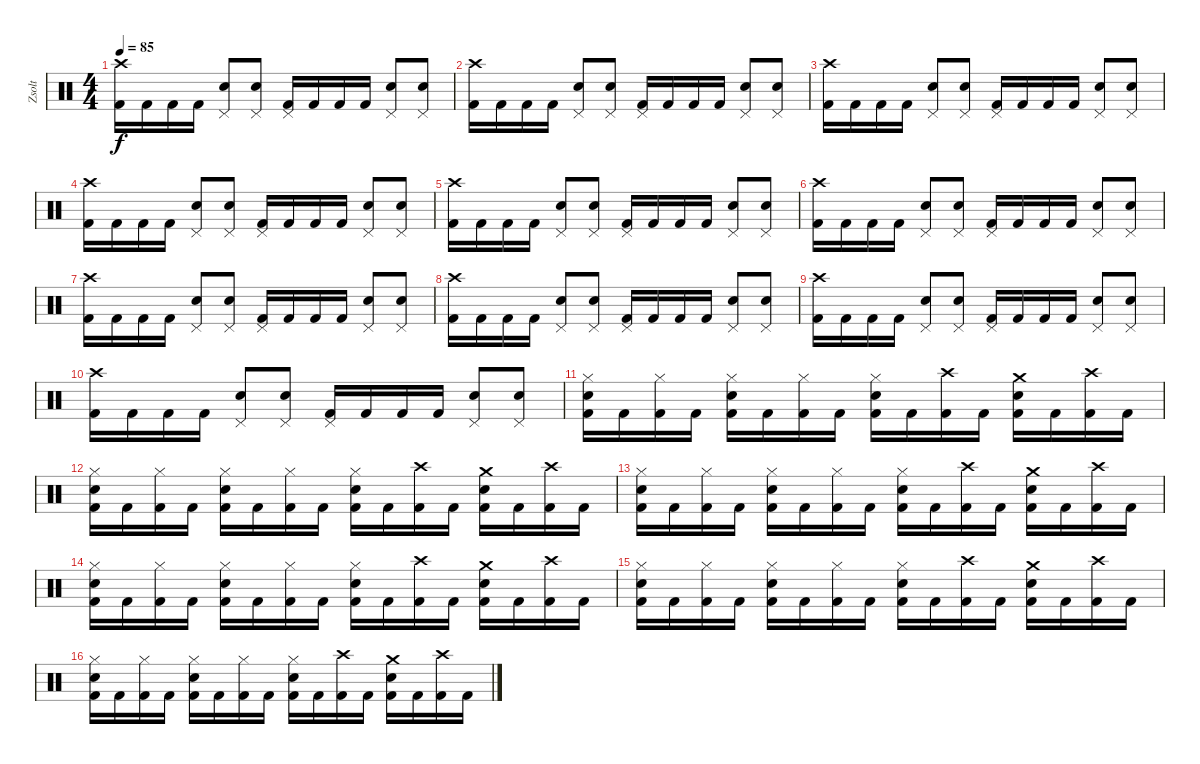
\track ("Zsolt" "Zsolt") {instrument percussion}
\staff {score}
\articulation defaults
\ts (4 4)
\tempo 85
\clef neutral
\ks c
("Crash high (hit)" "Kick (hit) 2").16{dy f} "Kick (hit) 2".16 "Kick (hit) 2".16 "Kick (hit) 2".16 ("Pedal Hi-Hat (hit)" "Electric Snare (hit)").8 ("Pedal Hi-Hat (hit)" "Electric Snare (hit)").8 ("Pedal Hi-Hat (hit)" "Kick (hit) 2").16 "Kick (hit) 2".16 "Kick (hit) 2".16 "Kick (hit) 2".16 ("Pedal Hi-Hat (hit)" "Electric Snare (hit)").8 ("Pedal Hi-Hat (hit)" "Electric Snare (hit)").8 |
("Crash high (hit)" "Kick (hit) 2").16 "Kick (hit) 2".16 "Kick (hit) 2".16 "Kick (hit) 2".16 ("Pedal Hi-Hat (hit)" "Electric Snare (hit)").8 ("Pedal Hi-Hat (hit)" "Electric Snare (hit)").8 ("Pedal Hi-Hat (hit)" "Kick (hit) 2").16 "Kick (hit) 2".16 "Kick (hit) 2".16 "Kick (hit) 2".16 ("Pedal Hi-Hat (hit)" "Electric Snare (hit)").8 ("Pedal Hi-Hat (hit)" "Electric Snare (hit)").8 |
("Crash high (hit)" "Kick (hit) 2").16 "Kick (hit) 2".16 "Kick (hit) 2".16 "Kick (hit) 2".16 ("Pedal Hi-Hat (hit)" "Electric Snare (hit)").8 ("Pedal Hi-Hat (hit)" "Electric Snare (hit)").8 ("Pedal Hi-Hat (hit)" "Kick (hit) 2").16 "Kick (hit) 2".16 "Kick (hit) 2".16 "Kick (hit) 2".16 ("Pedal Hi-Hat (hit)" "Electric Snare (hit)").8 ("Pedal Hi-Hat (hit)" "Electric Snare (hit)").8 |
("Crash high (hit)" "Kick (hit) 2").16 "Kick (hit) 2".16 "Kick (hit) 2".16 "Kick (hit) 2".16 ("Pedal Hi-Hat (hit)" "Electric Snare (hit)").8 ("Pedal Hi-Hat (hit)" "Electric Snare (hit)").8 ("Pedal Hi-Hat (hit)" "Kick (hit) 2").16 "Kick (hit) 2".16 "Kick (hit) 2".16 "Kick (hit) 2".16 ("Pedal Hi-Hat (hit)" "Electric Snare (hit)").8 ("Pedal Hi-Hat (hit)" "Electric Snare (hit)").8 |
("Crash high (hit)" "Kick (hit) 2").16 "Kick (hit) 2".16 "Kick (hit) 2".16 "Kick (hit) 2".16 ("Pedal Hi-Hat (hit)" "Electric Snare (hit)").8 ("Pedal Hi-Hat (hit)" "Electric Snare (hit)").8 ("Pedal Hi-Hat (hit)" "Kick (hit) 2").16 "Kick (hit) 2".16 "Kick (hit) 2".16 "Kick (hit) 2".16 ("Pedal Hi-Hat (hit)" "Electric Snare (hit)").8 ("Pedal Hi-Hat (hit)" "Electric Snare (hit)").8 |
("Crash high (hit)" "Kick (hit) 2").16 "Kick (hit) 2".16 "Kick (hit) 2".16 "Kick (hit) 2".16 ("Pedal Hi-Hat (hit)" "Electric Snare (hit)").8 ("Pedal Hi-Hat (hit)" "Electric Snare (hit)").8 ("Pedal Hi-Hat (hit)" "Kick (hit) 2").16 "Kick (hit) 2".16 "Kick (hit) 2".16 "Kick (hit) 2".16 ("Pedal Hi-Hat (hit)" "Electric Snare (hit)").8 ("Pedal Hi-Hat (hit)" "Electric Snare (hit)").8 |
("Crash high (hit)" "Kick (hit) 2").16 "Kick (hit) 2".16 "Kick (hit) 2".16 "Kick (hit) 2".16 ("Pedal Hi-Hat (hit)" "Electric Snare (hit)").8 ("Pedal Hi-Hat (hit)" "Electric Snare (hit)").8 ("Pedal Hi-Hat (hit)" "Kick (hit) 2").16 "Kick (hit) 2".16 "Kick (hit) 2".16 "Kick (hit) 2".16 ("Pedal Hi-Hat (hit)" "Electric Snare (hit)").8 ("Pedal Hi-Hat (hit)" "Electric Snare (hit)").8 |
("Crash high (hit)" "Kick (hit) 2").16 "Kick (hit) 2".16 "Kick (hit) 2".16 "Kick (hit) 2".16 ("Pedal Hi-Hat (hit)" "Electric Snare (hit)").8 ("Pedal Hi-Hat (hit)" "Electric Snare (hit)").8 ("Pedal Hi-Hat (hit)" "Kick (hit) 2").16 "Kick (hit) 2".16 "Kick (hit) 2".16 "Kick (hit) 2".16 ("Pedal Hi-Hat (hit)" "Electric Snare (hit)").8 ("Pedal Hi-Hat (hit)" "Electric Snare (hit)").8 |
("Crash high (hit)" "Kick (hit) 2").16 "Kick (hit) 2".16 "Kick (hit) 2".16 "Kick (hit) 2".16 ("Pedal Hi-Hat (hit)" "Electric Snare (hit)").8 ("Pedal Hi-Hat (hit)" "Electric Snare (hit)").8 ("Pedal Hi-Hat (hit)" "Kick (hit) 2").16 "Kick (hit) 2".16 "Kick (hit) 2".16 "Kick (hit) 2".16 ("Pedal Hi-Hat (hit)" "Electric Snare (hit)").8 ("Pedal Hi-Hat (hit)" "Electric Snare (hit)").8 |
("Crash high (hit)" "Kick (hit) 2").16 "Kick (hit) 2".16 "Kick (hit) 2".16 "Kick (hit) 2".16 ("Pedal Hi-Hat (hit)" "Electric Snare (hit)").8 ("Pedal Hi-Hat (hit)" "Electric Snare (hit)").8 ("Pedal Hi-Hat (hit)" "Kick (hit) 2").16 "Kick (hit) 2".16 "Kick (hit) 2".16 "Kick (hit) 2".16 ("Pedal Hi-Hat (hit)" "Electric Snare (hit)").8 ("Pedal Hi-Hat (hit)" "Electric Snare (hit)").8 |
("Hi-Hat (closed)" "Electric Snare (hit)" "Kick (hit) 2").16 "Kick (hit) 2".16 ("Hi-Hat (closed)" "Kick (hit) 2").16 "Kick (hit) 2".16 ("Hi-Hat (closed)" "Electric Snare (hit)" "Kick (hit) 2").16 "Kick (hit) 2".16 ("Hi-Hat (closed)" "Kick (hit) 2").16 "Kick (hit) 2".16 ("Hi-Hat (closed)" "Electric Snare (hit)" "Kick (hit) 2").16 "Kick (hit) 2".16 ("Crash high (hit)" "Kick (hit) 2").16 "Kick (hit) 2".16 ("Crash medium (hit)" "Electric Snare (hit)" "Kick (hit) 2").16 "Kick (hit) 2".16 ("Crash high (hit)" "Kick (hit) 2").16 "Kick (hit) 2".16 |
("Hi-Hat (closed)" "Electric Snare (hit)" "Kick (hit) 2").16 "Kick (hit) 2".16 ("Hi-Hat (closed)" "Kick (hit) 2").16 "Kick (hit) 2".16 ("Hi-Hat (closed)" "Electric Snare (hit)" "Kick (hit) 2").16 "Kick (hit) 2".16 ("Hi-Hat (closed)" "Kick (hit) 2").16 "Kick (hit) 2".16 ("Hi-Hat (closed)" "Electric Snare (hit)" "Kick (hit) 2").16 "Kick (hit) 2".16 ("Crash high (hit)" "Kick (hit) 2").16 "Kick (hit) 2".16 ("Crash medium (hit)" "Electric Snare (hit)" "Kick (hit) 2").16 "Kick (hit) 2".16 ("Crash high (hit)" "Kick (hit) 2").16 "Kick (hit) 2".16 |
("Hi-Hat (closed)" "Electric Snare (hit)" "Kick (hit) 2").16 "Kick (hit) 2".16 ("Hi-Hat (closed)" "Kick (hit) 2").16 "Kick (hit) 2".16 ("Hi-Hat (closed)" "Electric Snare (hit)" "Kick (hit) 2").16 "Kick (hit) 2".16 ("Hi-Hat (closed)" "Kick (hit) 2").16 "Kick (hit) 2".16 ("Hi-Hat (closed)" "Electric Snare (hit)" "Kick (hit) 2").16 "Kick (hit) 2".16 ("Crash high (hit)" "Kick (hit) 2").16 "Kick (hit) 2".16 ("Crash medium (hit)" "Electric Snare (hit)" "Kick (hit) 2").16 "Kick (hit) 2".16 ("Crash high (hit)" "Kick (hit) 2").16 "Kick (hit) 2".16 |
("Hi-Hat (closed)" "Electric Snare (hit)" "Kick (hit) 2").16 "Kick (hit) 2".16 ("Hi-Hat (closed)" "Kick (hit) 2").16 "Kick (hit) 2".16 ("Hi-Hat (closed)" "Electric Snare (hit)" "Kick (hit) 2").16 "Kick (hit) 2".16 ("Hi-Hat (closed)" "Kick (hit) 2").16 "Kick (hit) 2".16 ("Hi-Hat (closed)" "Electric Snare (hit)" "Kick (hit) 2").16 "Kick (hit) 2".16 ("Crash high (hit)" "Kick (hit) 2").16 "Kick (hit) 2".16 ("Crash medium (hit)" "Electric Snare (hit)" "Kick (hit) 2").16 "Kick (hit) 2".16 ("Crash high (hit)" "Kick (hit) 2").16 "Kick (hit) 2".16 |
("Hi-Hat (closed)" "Electric Snare (hit)" "Kick (hit) 2").16 "Kick (hit) 2".16 ("Hi-Hat (closed)" "Kick (hit) 2").16 "Kick (hit) 2".16 ("Hi-Hat (closed)" "Electric Snare (hit)" "Kick (hit) 2").16 "Kick (hit) 2".16 ("Hi-Hat (closed)" "Kick (hit) 2").16 "Kick (hit) 2".16 ("Hi-Hat (closed)" "Electric Snare (hit)" "Kick (hit) 2").16 "Kick (hit) 2".16 ("Crash high (hit)" "Kick (hit) 2").16 "Kick (hit) 2".16 ("Crash medium (hit)" "Electric Snare (hit)" "Kick (hit) 2").16 "Kick (hit) 2".16 ("Crash high (hit)" "Kick (hit) 2").16 "Kick (hit) 2".16 |
("Hi-Hat (closed)" "Electric Snare (hit)" "Kick (hit) 2").16 "Kick (hit) 2".16 ("Hi-Hat (closed)" "Kick (hit) 2").16 "Kick (hit) 2".16 ("Hi-Hat (closed)" "Electric Snare (hit)" "Kick (hit) 2").16 "Kick (hit) 2".16 ("Hi-Hat (closed)" "Kick (hit) 2").16 "Kick (hit) 2".16 ("Hi-Hat (closed)" "Electric Snare (hit)" "Kick (hit) 2").16 "Kick (hit) 2".16 ("Crash high (hit)" "Kick (hit) 2").16 "Kick (hit) 2".16 ("Crash medium (hit)" "Electric Snare (hit)" "Kick (hit) 2").16 "Kick (hit) 2".16 ("Crash high (hit)" "Kick (hit) 2").16 "Kick (hit) 2".16
